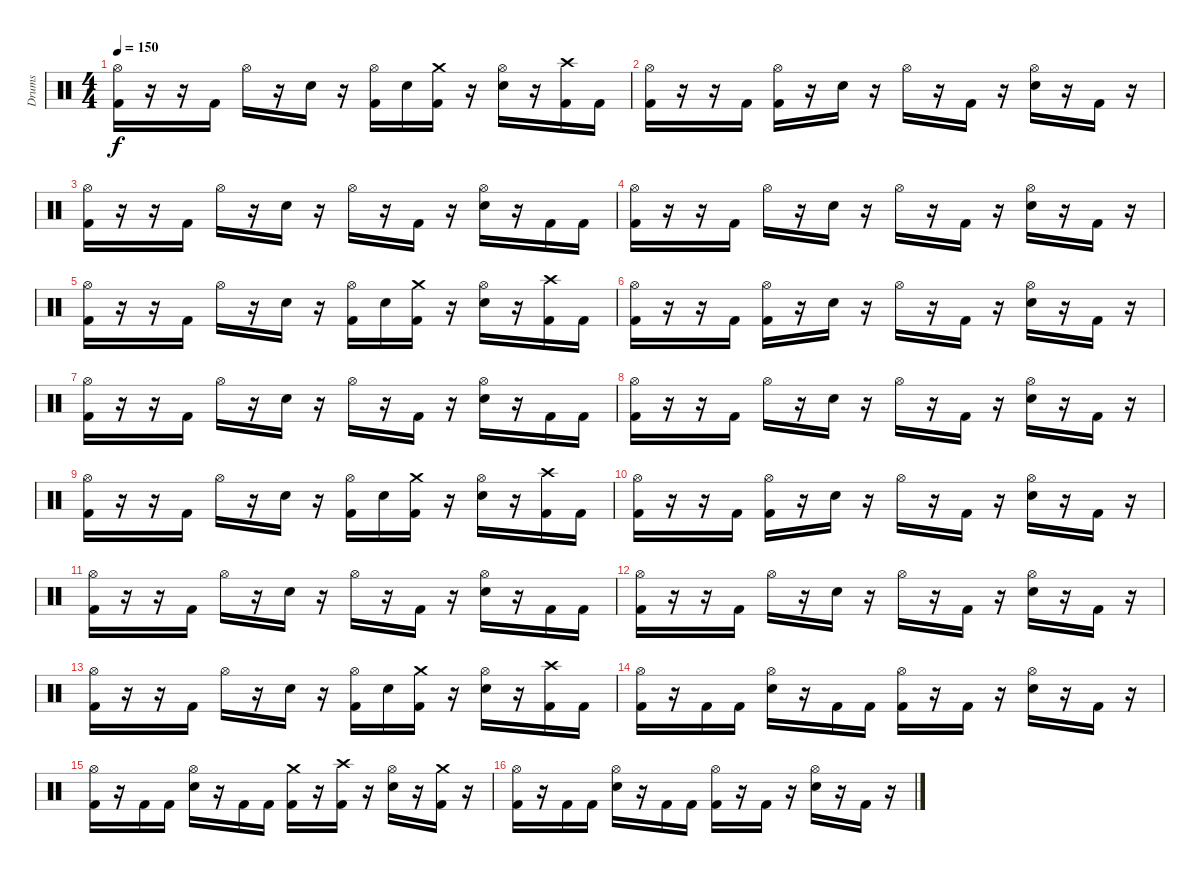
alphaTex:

\track ("Drums" "Drums") {instrument percussion}
\staff {score}
\articulation defaults
\ts (4 4)
\tempo 150
\clef neutral
\ks c
("Hi-Hat (open)" "Kick (hit) 2").16{dy f} r.16 r.16 "Kick (hit) 2".16 "Hi-Hat (open)".16 r.16 "Snare (hit) 2".16 r.16 ("Hi-Hat (open)" "Kick (hit) 2").16 "Snare (hit) 2".16 ("Crash medium (hit)" "Kick (hit) 2").16 r.16 ("Hi-Hat (open)" "Snare (hit) 2").16 r.16 ("Crash high (hit)" "Kick (hit) 2").16 "Kick (hit) 2".16 |
("Hi-Hat (open)" "Kick (hit) 2").16 r.16 r.16 "Kick (hit) 2".16 ("Hi-Hat (open)" "Kick (hit) 2").16 r.16 "Snare (hit) 2".16 r.16 "Hi-Hat (open)".16 r.16 "Kick (hit) 2".16 r.16 ("Hi-Hat (open)" "Snare (hit) 2").16 r.16 "Kick (hit) 2".16 r.16 |
("Hi-Hat (open)" "Kick (hit) 2").16 r.16 r.16 "Kick (hit) 2".16 "Hi-Hat (open)".16 r.16 "Snare (hit) 2".16 r.16 "Hi-Hat (open)".16 r.16 "Kick (hit) 2".16 r.16 ("Hi-Hat (open)" "Snare (hit) 2").16 r.16 "Kick (hit) 2".16 "Kick (hit) 2".16 |
("Hi-Hat (open)" "Kick (hit) 2").16 r.16 r.16 "Kick (hit) 2".16 "Hi-Hat (open)".16 r.16 "Snare (hit) 2".16 r.16 "Hi-Hat (open)".16 r.16 "Kick (hit) 2".16 r.16 ("Hi-Hat (open)" "Snare (hit) 2").16 r.16 "Kick (hit) 2".16 r.16 |
("Hi-Hat (open)" "Kick (hit) 2").16 r.16 r.16 "Kick (hit) 2".16 "Hi-Hat (open)".16 r.16 "Snare (hit) 2".16 r.16 ("Hi-Hat (open)" "Kick (hit) 2").16 "Snare (hit) 2".16 ("Crash medium (hit)" "Kick (hit) 2").16 r.16 ("Hi-Hat (open)" "Snare (hit) 2").16 r.16 ("Crash high (hit)" "Kick (hit) 2").16 "Kick (hit) 2".16 |
("Hi-Hat (open)" "Kick (hit) 2").16 r.16 r.16 "Kick (hit) 2".16 ("Hi-Hat (open)" "Kick (hit) 2").16 r.16 "Snare (hit) 2".16 r.16 "Hi-Hat (open)".16 r.16 "Kick (hit) 2".16 r.16 ("Hi-Hat (open)" "Snare (hit) 2").16 r.16 "Kick (hit) 2".16 r.16 |
("Hi-Hat (open)" "Kick (hit) 2").16 r.16 r.16 "Kick (hit) 2".16 "Hi-Hat (open)".16 r.16 "Snare (hit) 2".16 r.16 "Hi-Hat (open)".16 r.16 "Kick (hit) 2".16 r.16 ("Hi-Hat (open)" "Snare (hit) 2").16 r.16 "Kick (hit) 2".16 "Kick (hit) 2".16 |
("Hi-Hat (open)" "Kick (hit) 2").16 r.16 r.16 "Kick (hit) 2".16 "Hi-Hat (open)".16 r.16 "Snare (hit) 2".16 r.16 "Hi-Hat (open)".16 r.16 "Kick (hit) 2".16 r.16 ("Hi-Hat (open)" "Snare (hit) 2").16 r.16 "Kick (hit) 2".16 r.16 |
("Hi-Hat (open)" "Kick (hit) 2").16 r.16 r.16 "Kick (hit) 2".16 "Hi-Hat (open)".16 r.16 "Snare (hit) 2".16 r.16 ("Hi-Hat (open)" "Kick (hit) 2").16 "Snare (hit) 2".16 ("Crash medium (hit)" "Kick (hit) 2").16 r.16 ("Hi-Hat (open)" "Snare (hit) 2").16 r.16 ("Crash high (hit)" "Kick (hit) 2").16 "Kick (hit) 2".16 |
("Hi-Hat (open)" "Kick (hit) 2").16 r.16 r.16 "Kick (hit) 2".16 ("Hi-Hat (open)" "Kick (hit) 2").16 r.16 "Snare (hit) 2".16 r.16 "Hi-Hat (open)".16 r.16 "Kick (hit) 2".16 r.16 ("Hi-Hat (open)" "Snare (hit) 2").16 r.16 "Kick (hit) 2".16 r.16 |
("Hi-Hat (open)" "Kick (hit) 2").16 r.16 r.16 "Kick (hit) 2".16 "Hi-Hat (open)".16 r.16 "Snare (hit) 2".16 r.16 "Hi-Hat (open)".16 r.16 "Kick (hit) 2".16 r.16 ("Hi-Hat (open)" "Snare (hit) 2").16 r.16 "Kick (hit) 2".16 "Kick (hit) 2".16 |
("Hi-Hat (open)" "Kick (hit) 2").16 r.16 r.16 "Kick (hit) 2".16 "Hi-Hat (open)".16 r.16 "Snare (hit) 2".16 r.16 "Hi-Hat (open)".16 r.16 "Kick (hit) 2".16 r.16 ("Hi-Hat (open)" "Snare (hit) 2").16 r.16 "Kick (hit) 2".16 r.16 |
("Hi-Hat (open)" "Kick (hit) 2").16 r.16 r.16 "Kick (hit) 2".16 "Hi-Hat (open)".16 r.16 "Snare (hit) 2".16 r.16 ("Hi-Hat (open)" "Kick (hit) 2").16 "Snare (hit) 2".16 ("Crash medium (hit)" "Kick (hit) 2").16 r.16 ("Hi-Hat (open)" "Snare (hit) 2").16 r.16 ("Crash high (hit)" "Kick (hit) 2").16 "Kick (hit) 2".16 |
("Hi-Hat (open)" "Kick (hit) 2").16 r.16 "Kick (hit) 2".16 "Kick (hit) 2".16 ("Hi-Hat (open)" "Snare (hit) 2").16 r.16 "Kick (hit) 2".16 "Kick (hit) 2".16 ("Hi-Hat (open)" "Kick (hit) 2").16 r.16 "Kick (hit) 2".16 r.16 ("Hi-Hat (open)" "Snare (hit) 2").16 r.16 "Kick (hit) 2".16 r.16 |
("Hi-Hat (open)" "Kick (hit) 2").16 r.16 "Kick (hit) 2".16 "Kick (hit) 2".16 ("Hi-Hat (open)" "Snare (hit) 2").16 r.16 "Kick (hit) 2".16 "Kick (hit) 2".16 ("Crash medium (hit)" "Kick (hit) 2").16 r.16 ("Crash high (hit)" "Kick (hit) 2").16 r.16 ("Hi-Hat (open)" "Snare (hit) 2").16 r.16 ("Crash medium (hit)" "Kick (hit) 2").16 r.16 |
("Hi-Hat (open)" "Kick (hit) 2").16 r.16 "Kick (hit) 2".16 "Kick (hit) 2".16 ("Hi-Hat (open)" "Snare (hit) 2").16 r.16 "Kick (hit) 2".16 "Kick (hit) 2".16 ("Hi-Hat (open)" "Kick (hit) 2").16 r.16 "Kick (hit) 2".16 r.16 ("Hi-Hat (open)" "Snare (hit) 2").16 r.16 "Kick (hit) 2".16 r.16
